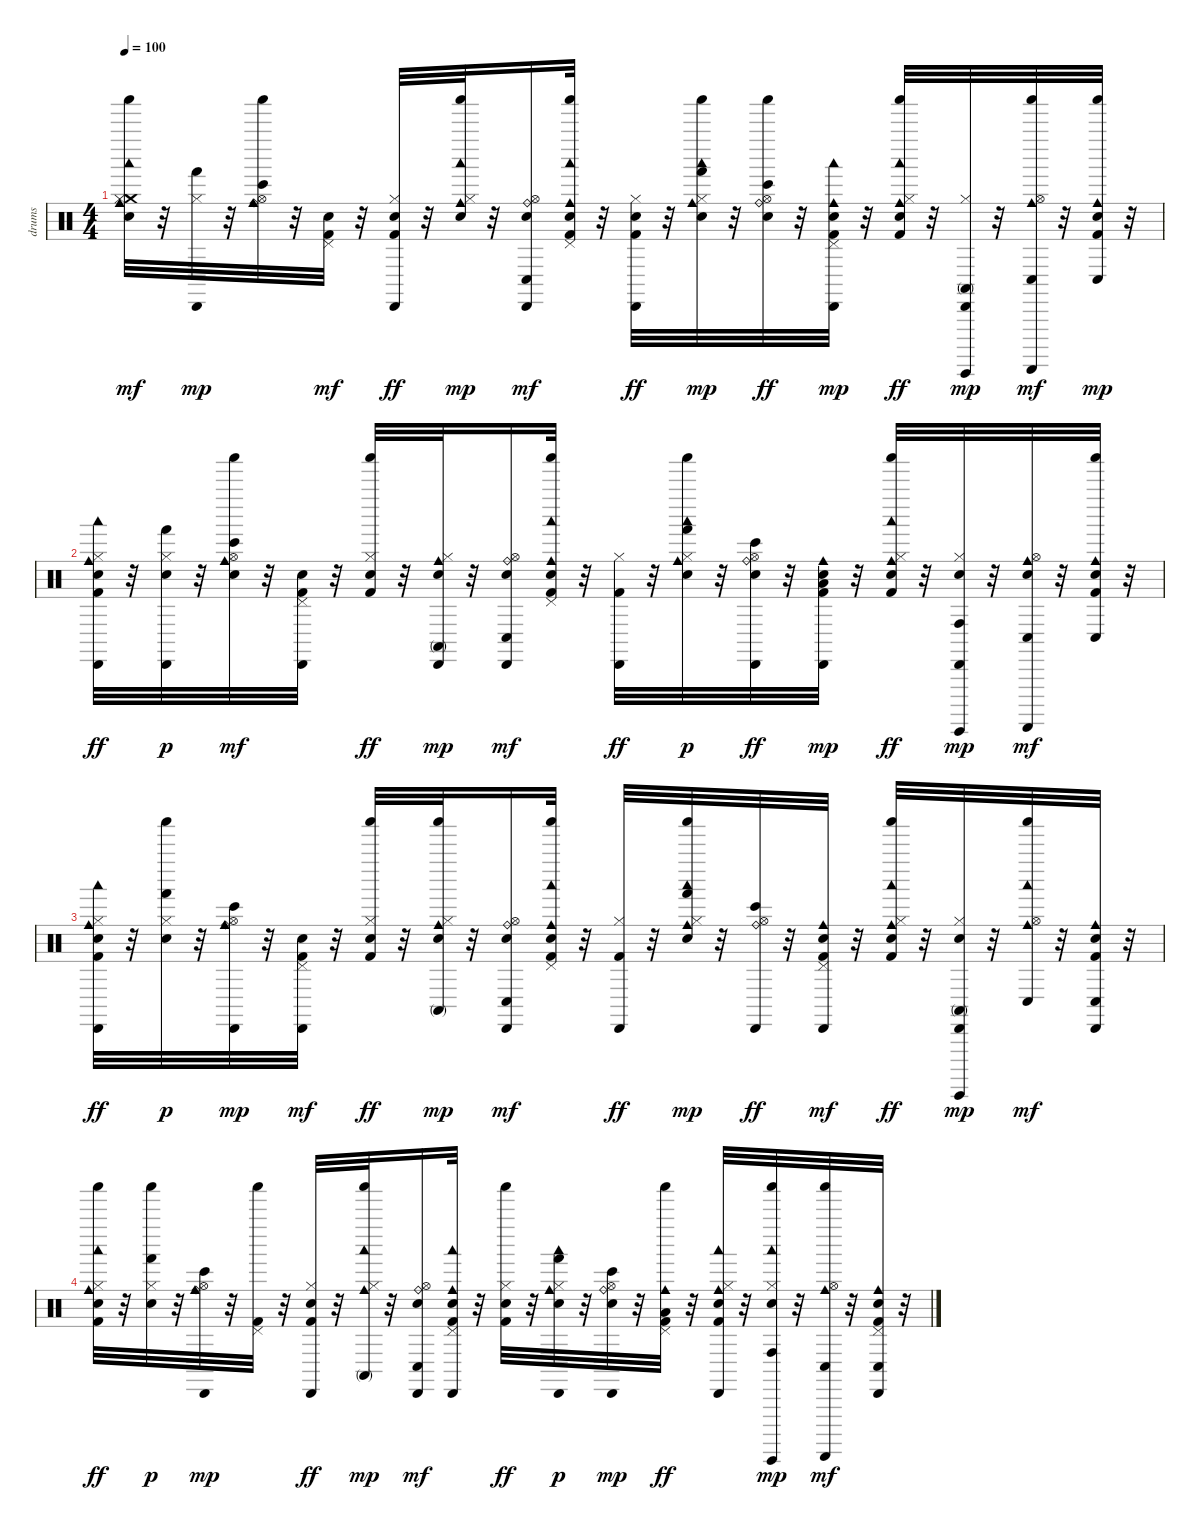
\track ("drums" "drums") {instrument percussion}
\staff {score}
\articulation defaults
\ts (4 4)
\tempo 100
\clef neutral
\ks c
("Crash medium (hit)" "Snare (hit) 2" "Hi-Hat (closed)" "Woodblock low (hit)" "Shaker (hit)" "Cowbell medium (hit)").32{dy mf} r.32 ("Hi-Hat (closed)" "Cabasa (hit)" "Hand (hit)").32{dy mp} r.32 ("Hi-Hat (open)" "Shaker (hit)" "Cowbell medium (hit)" "Ride (bell)" "Bongo High (hit)").32 r.32 ("Snare (hit) 2" "Pedal Hi-Hat (hit)" "Kick (hit) 2").32{dy mf} r.32 ("Snare (hit) 2" "Hi-Hat (closed)" "Cabasa (hit)" "Kick (hit) 2").32{dy ff} r.32 ("Snare (hit) 2" "Hi-Hat (closed)" "Woodblock low (hit)" "Shaker (hit)" "Cowbell medium (hit)").32{dy mp} r.32 ("Snare (hit) 2" "Hi-Hat (open)" "Cabasa (hit)" "Ride (bell)" "Conga low (hit)").16{dy mf} ("Snare (hit) 2" "Pedal Hi-Hat (hit)" "Woodblock low (hit)" "Shaker (hit)" "Cowbell medium (hit)" "Kick (hit) 2").32 r.32 ("Snare (hit) 2" "Hi-Hat (closed)" "Cabasa (hit)" "Kick (hit) 2").32{dy ff} r.32 ("Snare (hit) 2" "Hi-Hat (closed)" "Woodblock low (hit)" "Shaker (hit)" "Cowbell medium (hit)" "Hand (hit)").32{dy mp} r.32 ("Snare (hit) 2" "Hi-Hat (open)" "Shaker (hit)" "Ride (bell)" "Bongo High (hit)").32{dy ff} r.32 ("Snare (hit) 2" "Pedal Hi-Hat (hit)" "Woodblock low (hit)" "Cabasa (hit)" "Cowbell medium (hit)" "Kick (hit) 2").32{dy mp} r.32 ("Snare (hit) 2" "Hi-Hat (closed)" "Woodblock low (hit)" "Shaker (hit)" "Cowbell medium (hit)" "Kick (hit) 2").32{dy ff} r.32 ("Hi-Hat (closed)" "Cabasa (hit)" "Guiro (hit)" "Conga high (mute)").32{dy mp} r.32 ("Hi-Hat (open)" "Shaker (hit)" "Guiro (scrap-return)" "Cowbell medium (hit)" "Conga low (hit)").32{dy mf} r.32 ("Snare (hit) 2" "Shaker (hit)" "Cowbell medium (hit)" "Kick (hit) 2" "Conga low (hit)").32{dy mp} r.32 |
("Snare (hit) 2" "Hi-Hat (closed)" "Woodblock low (hit)" "Cabasa (hit)" "Cowbell medium (hit)" "Kick (hit) 2").32{dy ff} r.32 ("Snare (hit) 2" "Hi-Hat (closed)" "Cabasa (hit)" "Hand (hit)").32{dy p} r.32 ("Snare (hit) 2" "Hi-Hat (open)" "Shaker (hit)" "Cowbell medium (hit)" "Bongo High (hit)").32{dy mf} r.32 ("Snare (hit) 2" "Pedal Hi-Hat (hit)" "Cabasa (hit)" "Kick (hit) 2").32 r.32 ("Snare (hit) 2" "Hi-Hat (closed)" "Shaker (hit)" "Kick (hit) 2").32{dy ff} r.32 ("Snare (hit) 2" "Hi-Hat (closed)" "Cabasa (hit)" "Cowbell medium (hit)" "Conga high (mute)").32{dy mp} r.32 ("Snare (hit) 2" "Hi-Hat (open)" "Cabasa (hit)" "Ride (bell)" "Conga low (hit)").16{dy mf} ("Snare (hit) 2" "Pedal Hi-Hat (hit)" "Woodblock low (hit)" "Shaker (hit)" "Cowbell medium (hit)" "Kick (hit) 2").32 r.32 ("Hi-Hat (closed)" "Cabasa (hit)" "Kick (hit) 2").32{dy ff} r.32 ("Snare (hit) 2" "Hi-Hat (closed)" "Woodblock low (hit)" "Shaker (hit)" "Cowbell medium (hit)" "Hand (hit)").32{dy p} r.32 ("Snare (hit) 2" "Hi-Hat (open)" "Cabasa (hit)" "Ride (bell)" "Bongo High (hit)").32{dy ff} r.32 ("Snare (hit) 2" "Cabasa (hit)" "Cowbell medium (hit)" "Kick (hit) 2" "Low Tom (hit)").32{dy mp} r.32 ("Snare (hit) 2" "Hi-Hat (closed)" "Woodblock low (hit)" "Shaker (hit)" "Cowbell medium (hit)" "Kick (hit) 2").32{dy ff} r.32 ("Snare (hit) 2" "Hi-Hat (closed)" "Cabasa (hit)" "Guiro (hit)" "Conga high (hit)").32{dy mp} r.32 ("Snare (hit) 2" "Hi-Hat (open)" "Guiro (scrap-return)" "Cowbell medium (hit)" "Conga low (hit)").32{dy mf} r.32 ("Snare (hit) 2" "Shaker (hit)" "Cowbell medium (hit)" "Kick (hit) 2" "Conga low (hit)").32 r.32 |
("Snare (hit) 2" "Hi-Hat (closed)" "Woodblock low (hit)" "Cabasa (hit)" "Cowbell medium (hit)" "Kick (hit) 2").32{dy ff} r.32 ("Snare (hit) 2" "Hi-Hat (closed)" "Shaker (hit)" "Hand (hit)").32{dy p} r.32 ("Hi-Hat (open)" "Cabasa (hit)" "Cowbell medium (hit)" "Ride (bell)" "Bongo High (hit)").32{dy mp} r.32 ("Snare (hit) 2" "Pedal Hi-Hat (hit)" "Cabasa (hit)" "Kick (hit) 2").32{dy mf} r.32 ("Snare (hit) 2" "Hi-Hat (closed)" "Shaker (hit)" "Kick (hit) 2").32{dy ff} r.32 ("Snare (hit) 2" "Hi-Hat (closed)" "Shaker (hit)" "Cowbell medium (hit)" "Conga high (mute)").32{dy mp} r.32 ("Snare (hit) 2" "Hi-Hat (open)" "Cabasa (hit)" "Ride (bell)" "Conga low (hit)").16{dy mf} ("Snare (hit) 2" "Pedal Hi-Hat (hit)" "Woodblock low (hit)" "Shaker (hit)" "Cowbell medium (hit)" "Kick (hit) 2").32 r.32 ("Hi-Hat (closed)" "Cabasa (hit)" "Kick (hit) 2").32{dy ff} r.32 ("Snare (hit) 2" "Hi-Hat (closed)" "Woodblock low (hit)" "Shaker (hit)" "Cowbell medium (hit)" "Hand (hit)").32{dy mp} r.32 ("Hi-Hat (open)" "Cabasa (hit)" "Ride (bell)" "Bongo High (hit)").32{dy ff} r.32 ("Snare (hit) 2" "Pedal Hi-Hat (hit)" "Cabasa (hit)" "Cowbell medium (hit)" "Kick (hit) 2").32{dy mf} r.32 ("Snare (hit) 2" "Hi-Hat (closed)" "Woodblock low (hit)" "Shaker (hit)" "Cowbell medium (hit)" "Kick (hit) 2").32{dy ff} r.32 ("Snare (hit) 2" "Hi-Hat (closed)" "Cabasa (hit)" "Guiro (hit)" "Conga high (mute)").32{dy mp} r.32 ("Hi-Hat (open)" "Woodblock low (hit)" "Shaker (hit)" "Cowbell medium (hit)" "Conga low (hit)").32{dy mf} r.32 ("Snare (hit) 2" "Cabasa (hit)" "Cowbell medium (hit)" "Kick (hit) 2" "Conga low (hit)").32 r.32 |
("Snare (hit) 2" "Hi-Hat (closed)" "Woodblock low (hit)" "Shaker (hit)" "Cowbell medium (hit)" "Kick (hit) 2").32{dy ff} r.32 ("Snare (hit) 2" "Hi-Hat (closed)" "Shaker (hit)" "Hand (hit)").32{dy p} r.32 ("Hi-Hat (open)" "Cabasa (hit)" "Cowbell medium (hit)" "Ride (bell)" "Bongo High (hit)").32{dy mp} r.32 ("Pedal Hi-Hat (hit)" "Shaker (hit)" "Kick (hit) 2").32 r.32 ("Snare (hit) 2" "Hi-Hat (closed)" "Cabasa (hit)" "Kick (hit) 2").32{dy ff} r.32 ("Hi-Hat (closed)" "Woodblock low (hit)" "Shaker (hit)" "Cowbell medium (hit)" "Conga high (mute)").32{dy mp} r.32 ("Snare (hit) 2" "Hi-Hat (open)" "Cabasa (hit)" "Ride (bell)" "Conga low (hit)").16{dy mf} ("Snare (hit) 2" "Pedal Hi-Hat (hit)" "Woodblock low (hit)" "Cabasa (hit)" "Cowbell medium (hit)" "Kick (hit) 2").32 r.32 ("Snare (hit) 2" "Hi-Hat (closed)" "Shaker (hit)" "Kick (hit) 2").32{dy ff} r.32 ("Snare (hit) 2" "Hi-Hat (closed)" "Woodblock low (hit)" "Cabasa (hit)" "Cowbell medium (hit)" "Hand (hit)").32{dy p} r.32 ("Snare (hit) 2" "Hi-Hat (open)" "Cabasa (hit)" "Ride (bell)" "Bongo High (hit)").32{dy mp} r.32 ("Pedal Hi-Hat (hit)" "Shaker (hit)" "Cowbell medium (hit)" "Kick (hit) 2" "Low Tom (hit)").32{dy ff} r.32 ("Snare (hit) 2" "Hi-Hat (closed)" "Woodblock low (hit)" "Cabasa (hit)" "Cowbell medium (hit)" "Kick (hit) 2").32 r.32 ("Snare (hit) 2" "Hi-Hat (closed)" "Woodblock low (hit)" "Shaker (hit)" "Guiro (hit)" "Conga high (hit)").32{dy mp} r.32 ("Hi-Hat (open)" "Shaker (hit)" "Guiro (scrap-return)" "Cowbell medium (hit)" "Conga low (hit)").32{dy mf} r.32 ("Snare (hit) 2" "Pedal Hi-Hat (hit)" "Cabasa (hit)" "Cowbell medium (hit)" "Kick (hit) 2" "Conga low (hit)").32 r.32
